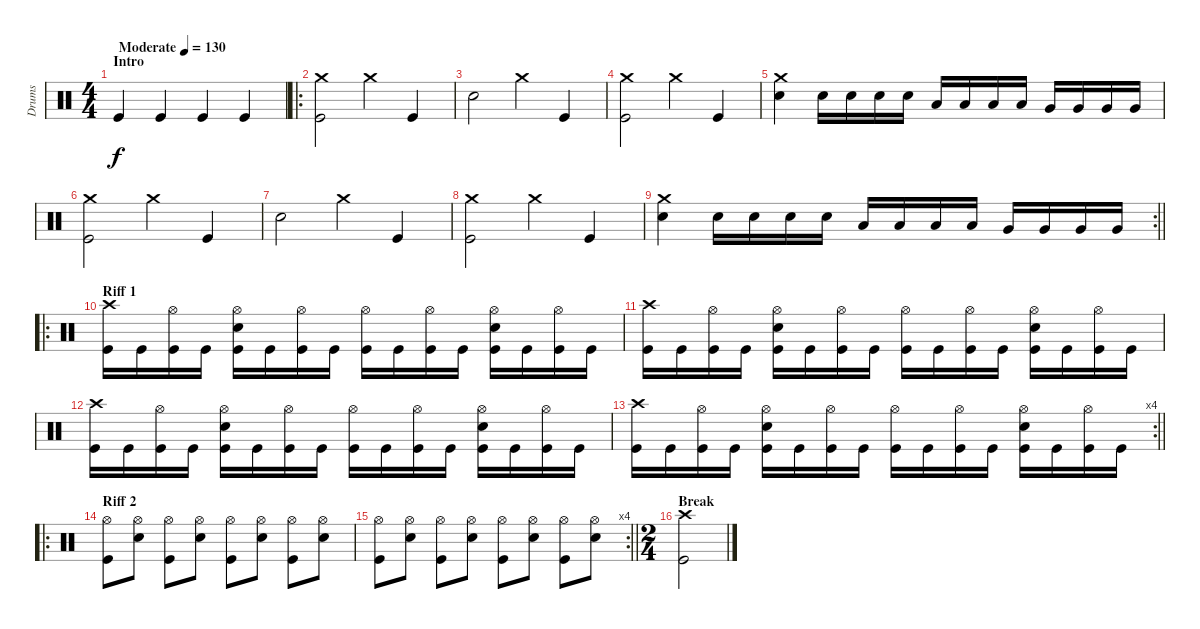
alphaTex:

\track ("Drums" "Drums") {instrument percussion}
\staff {score}
\articulation defaults
\ts (4 4)
\section ("" "Intro")
\tempo (130 "Moderate")
\clef neutral
\ks c "Kick (hit)".4{dy f} "Kick (hit)".4 "Kick (hit)".4 "Kick (hit)".4
|
\ro
("Crash medium (hit)" "Kick (hit)").2 "Crash medium (hit)".4 "Kick (hit)".4 |
"Snare (hit) 2".2 "Crash medium (hit)".4 "Kick (hit)".4 |
("Crash medium (hit)" "Kick (hit)").2 "Crash medium (hit)".4 "Kick (hit)".4 |
("Crash medium (hit)" "Snare (hit) 2").4 "Snare (hit) 2".16 "Snare (hit) 2".16 "Snare (hit) 2".16 "Snare (hit) 2".16 "Low Tom (hit)".16 "Low Tom (hit)".16 "Low Tom (hit)".16 "Low Tom (hit)".16 "Very Low Tom (hit)".16 "Very Low Tom (hit)".16 "Very Low Tom (hit)".16 "Very Low Tom (hit)".16 |
("Crash medium (hit)" "Kick (hit)").2 "Crash medium (hit)".4 "Kick (hit)".4 |
"Snare (hit) 2".2 "Crash medium (hit)".4 "Kick (hit)".4 |
("Crash medium (hit)" "Kick (hit)").2 "Crash medium (hit)".4 "Kick (hit)".4 |
\rc 2
\barLineRight lightlight
("Crash medium (hit)" "Snare (hit) 2").4 "Snare (hit) 2".16 "Snare (hit) 2".16 "Snare (hit) 2".16 "Snare (hit) 2".16 "Low Tom (hit)".16 "Low Tom (hit)".16 "Low Tom (hit)".16 "Low Tom (hit)".16 "Very Low Tom (hit)".16 "Very Low Tom (hit)".16 "Very Low Tom (hit)".16 "Very Low Tom (hit)".16 |
\ro
\section ("" "Riff 1")
("Crash high (hit)" "Kick (hit)").16 "Kick (hit)".16 ("Hi-Hat (open)" "Kick (hit)").16 "Kick (hit)".16 ("Hi-Hat (open)" "Snare (hit) 2" "Kick (hit)").16 "Kick (hit)".16 ("Hi-Hat (open)" "Kick (hit)").16 "Kick (hit)".16 ("Hi-Hat (open)" "Kick (hit)").16 "Kick (hit)".16 ("Hi-Hat (open)" "Kick (hit)").16 "Kick (hit)".16 ("Hi-Hat (open)" "Snare (hit) 2" "Kick (hit)").16 "Kick (hit)".16 ("Hi-Hat (open)" "Kick (hit)").16 "Kick (hit)".16 |
("Crash high (hit)" "Kick (hit)").16 "Kick (hit)".16 ("Hi-Hat (open)" "Kick (hit)").16 "Kick (hit)".16 ("Hi-Hat (open)" "Snare (hit) 2" "Kick (hit)").16 "Kick (hit)".16 ("Hi-Hat (open)" "Kick (hit)").16 "Kick (hit)".16 ("Hi-Hat (open)" "Kick (hit)").16 "Kick (hit)".16 ("Hi-Hat (open)" "Kick (hit)").16 "Kick (hit)".16 ("Hi-Hat (open)" "Snare (hit) 2" "Kick (hit)").16 "Kick (hit)".16 ("Hi-Hat (open)" "Kick (hit)").16 "Kick (hit)".16 |
("Crash high (hit)" "Kick (hit)").16 "Kick (hit)".16 ("Hi-Hat (open)" "Kick (hit)").16 "Kick (hit)".16 ("Hi-Hat (open)" "Snare (hit) 2" "Kick (hit)").16 "Kick (hit)".16 ("Hi-Hat (open)" "Kick (hit)").16 "Kick (hit)".16 ("Hi-Hat (open)" "Kick (hit)").16 "Kick (hit)".16 ("Hi-Hat (open)" "Kick (hit)").16 "Kick (hit)".16 ("Hi-Hat (open)" "Snare (hit) 2" "Kick (hit)").16 "Kick (hit)".16 ("Hi-Hat (open)" "Kick (hit)").16 "Kick (hit)".16 |
\rc 4
\barLineRight lightlight
("Crash high (hit)" "Kick (hit)").16 "Kick (hit)".16 ("Hi-Hat (open)" "Kick (hit)").16 "Kick (hit)".16 ("Hi-Hat (open)" "Snare (hit) 2" "Kick (hit)").16 "Kick (hit)".16 ("Hi-Hat (open)" "Kick (hit)").16 "Kick (hit)".16 ("Hi-Hat (open)" "Kick (hit)").16 "Kick (hit)".16 ("Hi-Hat (open)" "Kick (hit)").16 "Kick (hit)".16 ("Hi-Hat (open)" "Snare (hit) 2" "Kick (hit)").16 "Kick (hit)".16 ("Hi-Hat (open)" "Kick (hit)").16 "Kick (hit)".16 |
\ro
\section ("" "Riff 2")
("Hi-Hat (open)" "Kick (hit)").8 ("Hi-Hat (open)" "Snare (hit) 2").8 ("Hi-Hat (open)" "Kick (hit)").8 ("Hi-Hat (open)" "Snare (hit) 2").8 ("Hi-Hat (open)" "Kick (hit)").8 ("Hi-Hat (open)" "Snare (hit) 2").8 ("Hi-Hat (open)" "Kick (hit)").8 ("Hi-Hat (open)" "Snare (hit) 2").8 |
\rc 4
\barLineRight lightlight
("Hi-Hat (open)" "Kick (hit)").8 ("Hi-Hat (open)" "Snare (hit) 2").8 ("Hi-Hat (open)" "Kick (hit)").8 ("Hi-Hat (open)" "Snare (hit) 2").8 ("Hi-Hat (open)" "Kick (hit)").8 ("Hi-Hat (open)" "Snare (hit) 2").8 ("Hi-Hat (open)" "Kick (hit)").8 ("Hi-Hat (open)" "Snare (hit) 2").8 |
\ts (2 4)
\section ("" "Break")
("Crash high (hit)" "Kick (hit)").2
